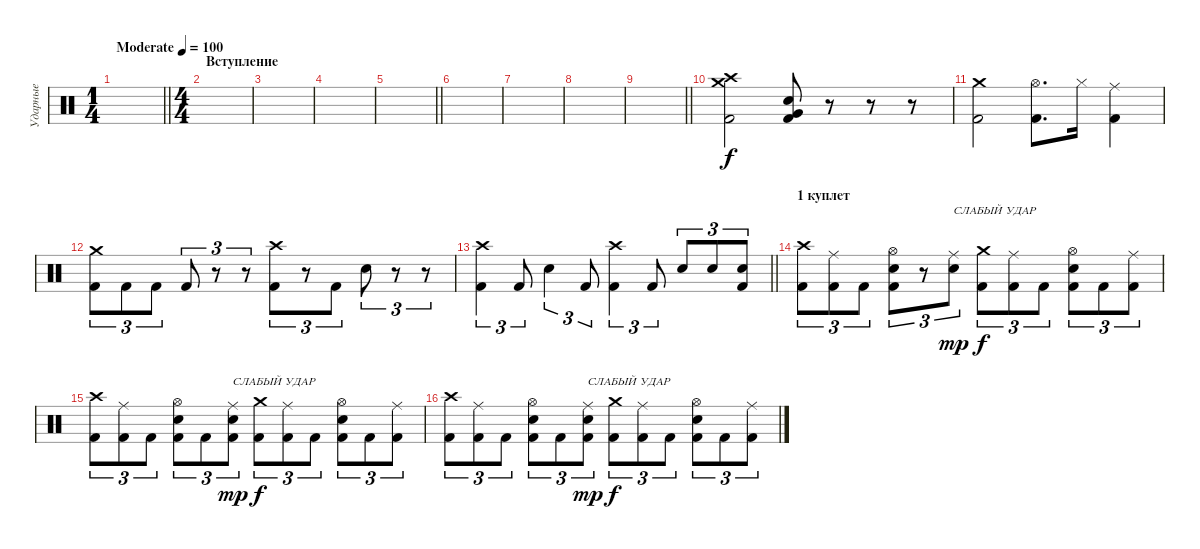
\track ("Ударные" "Ударные") {instrument percussion}
\staff {score}
\articulation defaults
\ts (1 4)
\tempo (100 "Moderate")
\clef neutral
\barLineRight lightlight
\ks c
|
\ts (4 4)
\section ("" "Вступление")
|
|
|
\barLineRight lightlight
|
|
|
|
\barLineRight lightlight
|
("Crash high (hit)" "Crash medium (hit)" "Kick (hit) 2").2 ("Very Low Tom (hit)" "Snare (hit) 2" "Kick (hit) 2").8 r.8 r.8 r.8 |
("Crash medium (hit)" "Kick (hit) 2").2 ("Kick (hit) 2" "Hi-Hat (open)").8{d} "Hi-Hat (closed)".16 ("Kick (hit) 2" "Ride (middle)").4 |
("Crash medium (hit)" "Kick (hit) 2").8{tu (3 2)} "Kick (hit) 2".8{tu (3 2)} "Kick (hit) 2".8{tu (3 2)} "Kick (hit) 2".8{tu (3 2)} r.8{tu (3 2)} r.8{tu (3 2)} ("Crash high (hit)" "Kick (hit) 2").8{tu (3 2)} r.8{tu (3 2)} "Kick (hit) 2".8{tu (3 2)} "Snare (hit) 2".8{tu (3 2)} r.8{tu (3 2)} r.8{tu (3 2)} |
\barLineRight lightlight
("Crash high (hit)" "Kick (hit) 2").4{tu (3 2)} "Kick (hit) 2".8{tu (3 2)} "Snare (hit) 2".4{tu (3 2)} "Kick (hit) 2".8{tu (3 2)} ("Crash high (hit)" "Kick (hit) 2").4{tu (3 2)} "Kick (hit) 2".8{tu (3 2)} "Snare (hit) 2".8{tu (3 2)} "Snare (hit) 2".8{tu (3 2)} ("Snare (hit) 2" "Kick (hit) 2").8{tu (3 2)} |
\section ("" "1 куплет")
("Kick (hit) 2" "Crash high (hit)").8{tu (3 2)} ("Kick (hit) 2" "Ride (middle)").8{tu (3 2)} "Kick (hit) 2".8{tu (3 2)} ("Kick (hit) 2" "Snare (hit) 2" "Hi-Hat (open)").8{tu (3 2)} r.8{tu (3 2)} ("Snare (hit) 2" "Ride (middle)").8{tu (3 2) txt "СЛАБЫЙ УДАР" dy mp} ("Kick (hit) 2" "Crash medium (hit)").8{tu (3 2) dy f} ("Kick (hit) 2" "Ride (middle)").8{tu (3 2)} "Kick (hit) 2".8{tu (3 2)} ("Kick (hit) 2" "Snare (hit) 2" "Hi-Hat (open)").8{tu (3 2)} "Kick (hit) 2".8{tu (3 2)} ("Kick (hit) 2" "Ride (middle)").8{tu (3 2)} |
("Kick (hit) 2" "Crash high (hit)").8{tu (3 2)} ("Kick (hit) 2" "Ride (middle)").8{tu (3 2)} "Kick (hit) 2".8{tu (3 2)} ("Kick (hit) 2" "Snare (hit) 2" "Hi-Hat (open)").8{tu (3 2)} "Kick (hit) 2".8{tu (3 2)} ("Kick (hit) 2" "Snare (hit) 2" "Ride (middle)").8{tu (3 2) txt "СЛАБЫЙ УДАР" dy mp} ("Kick (hit) 2" "Crash medium (hit)").8{tu (3 2) dy f} ("Kick (hit) 2" "Ride (middle)").8{tu (3 2)} "Kick (hit) 2".8{tu (3 2)} ("Kick (hit) 2" "Snare (hit) 2" "Hi-Hat (open)").8{tu (3 2)} "Kick (hit) 2".8{tu (3 2)} ("Kick (hit) 2" "Ride (middle)").8{tu (3 2)} |
("Kick (hit) 2" "Crash high (hit)").8{tu (3 2)} ("Kick (hit) 2" "Ride (middle)").8{tu (3 2)} "Kick (hit) 2".8{tu (3 2)} ("Kick (hit) 2" "Snare (hit) 2" "Hi-Hat (open)").8{tu (3 2)} "Kick (hit) 2".8{tu (3 2)} ("Kick (hit) 2" "Snare (hit) 2" "Ride (middle)").8{tu (3 2) txt "СЛАБЫЙ УДАР" dy mp} ("Kick (hit) 2" "Crash medium (hit)").8{tu (3 2) dy f} ("Kick (hit) 2" "Ride (middle)").8{tu (3 2)} "Kick (hit) 2".8{tu (3 2)} ("Kick (hit) 2" "Snare (hit) 2" "Hi-Hat (open)").8{tu (3 2)} "Kick (hit) 2".8{tu (3 2)} ("Kick (hit) 2" "Ride (middle)").8{tu (3 2)}
